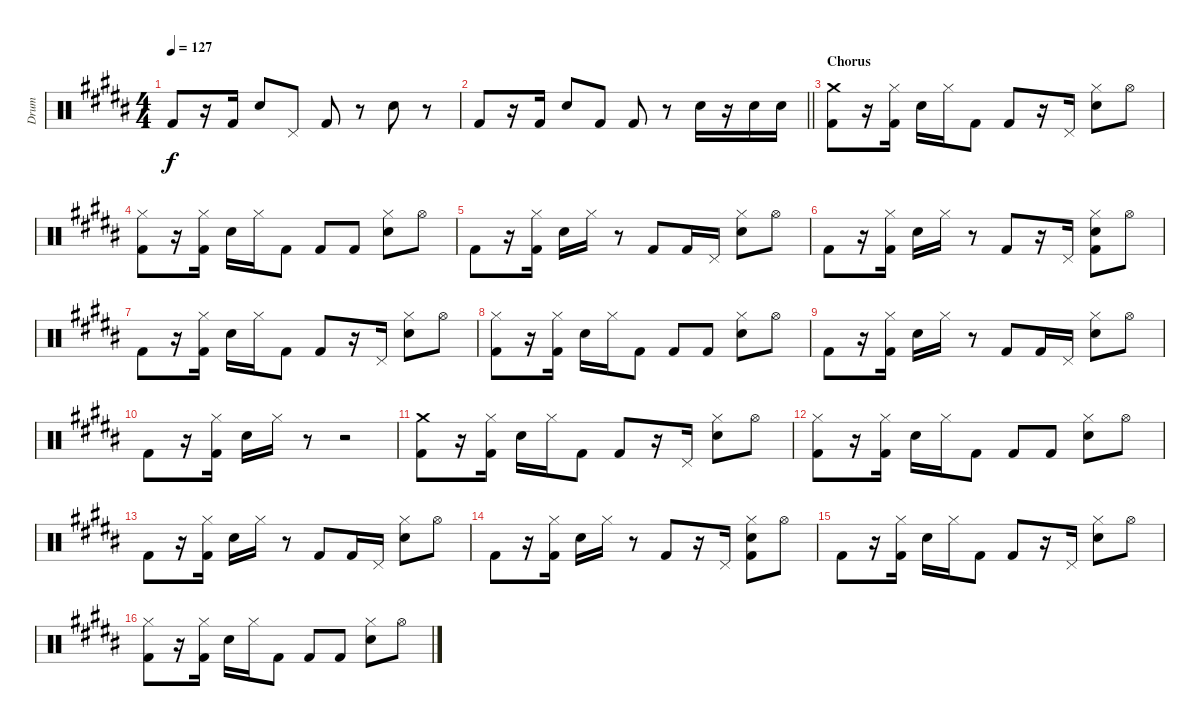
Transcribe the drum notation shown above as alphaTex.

\track ("Drum" "Drum") {instrument percussion}
\staff {score}
\articulation defaults
\ts (4 4)
\tempo 127
\clef neutral
\ks g#minor "Kick (hit) 2".8{dy f}
r.16 "Kick (hit) 2".16 "Snare (hit) 2".8 "Pedal Hi-Hat (hit)".8 "Kick (hit) 2".8 r.8 "Snare (hit) 2".8 r.8 |
\barLineRight lightlight "Kick (hit) 2".8
r.16 "Kick (hit) 2".16 "Snare (hit) 2".8 "Kick (hit) 2".8 "Kick (hit) 2".8 r.8 "Snare (hit) 2".16 r.16 "Snare (hit) 2".16 "Snare (hit) 2".16 |
\section ("" "Chorus")
("Crash medium (hit)" "Kick (hit) 2").8 r.16 ("Hi-Hat (closed)" "Kick (hit) 2").16 "Snare (hit) 2".16 "Hi-Hat (closed)".16 "Kick (hit) 2".8 "Kick (hit) 2".8 r.16 "Pedal Hi-Hat (hit)".16 ("Hi-Hat (closed)" "Snare (hit) 2").8 "Hi-Hat (open)".8 |
("Hi-Hat (closed)" "Kick (hit) 2").8 r.16 ("Hi-Hat (closed)" "Kick (hit) 2").16 "Snare (hit) 2".16 "Hi-Hat (closed)".16 "Kick (hit) 2".8 "Kick (hit) 2".8 "Kick (hit) 2".8 ("Hi-Hat (closed)" "Snare (hit) 2").8 "Hi-Hat (open)".8 |
"Kick (hit) 2".8 r.16 ("Hi-Hat (closed)" "Kick (hit) 2").16 "Snare (hit) 2".16 "Hi-Hat (closed)".16 r.8 "Kick (hit) 2".8 "Kick (hit) 2".16 "Pedal Hi-Hat (hit)".16 ("Hi-Hat (closed)" "Snare (hit) 2").8 "Hi-Hat (open)".8 |
"Kick (hit) 2".8 r.16 ("Hi-Hat (closed)" "Kick (hit) 2").16 "Snare (hit) 2".16 "Hi-Hat (closed)".16 r.8 "Kick (hit) 2".8 r.16 "Pedal Hi-Hat (hit)".16 ("Hi-Hat (closed)" "Snare (hit) 2" "Kick (hit) 2").8 "Hi-Hat (open)".8 |
"Kick (hit) 2".8 r.16 ("Hi-Hat (closed)" "Kick (hit) 2").16 "Snare (hit) 2".16 "Hi-Hat (closed)".16 "Kick (hit) 2".8 "Kick (hit) 2".8 r.16 "Pedal Hi-Hat (hit)".16 ("Hi-Hat (closed)" "Snare (hit) 2").8 "Hi-Hat (open)".8 |
("Hi-Hat (closed)" "Kick (hit) 2").8 r.16 ("Hi-Hat (closed)" "Kick (hit) 2").16 "Snare (hit) 2".16 "Hi-Hat (closed)".16 "Kick (hit) 2".8 "Kick (hit) 2".8 "Kick (hit) 2".8 ("Hi-Hat (closed)" "Snare (hit) 2").8 "Hi-Hat (open)".8 |
"Kick (hit) 2".8 r.16 ("Hi-Hat (closed)" "Kick (hit) 2").16 "Snare (hit) 2".16 "Hi-Hat (closed)".16 r.8 "Kick (hit) 2".8 "Kick (hit) 2".16 "Pedal Hi-Hat (hit)".16 ("Hi-Hat (closed)" "Snare (hit) 2").8 "Hi-Hat (open)".8 |
"Kick (hit) 2".8 r.16 ("Hi-Hat (closed)" "Kick (hit) 2").16 "Snare (hit) 2".16 "Hi-Hat (closed)".16 r.8 r.2 |
("Crash medium (hit)" "Kick (hit) 2").8 r.16 ("Hi-Hat (closed)" "Kick (hit) 2").16 "Snare (hit) 2".16 "Hi-Hat (closed)".16 "Kick (hit) 2".8 "Kick (hit) 2".8 r.16 "Pedal Hi-Hat (hit)".16 ("Hi-Hat (closed)" "Snare (hit) 2").8 "Hi-Hat (open)".8 |
("Hi-Hat (closed)" "Kick (hit) 2").8 r.16 ("Hi-Hat (closed)" "Kick (hit) 2").16 "Snare (hit) 2".16 "Hi-Hat (closed)".16 "Kick (hit) 2".8 "Kick (hit) 2".8 "Kick (hit) 2".8 ("Hi-Hat (closed)" "Snare (hit) 2").8 "Hi-Hat (open)".8 |
"Kick (hit) 2".8 r.16 ("Hi-Hat (closed)" "Kick (hit) 2").16 "Snare (hit) 2".16 "Hi-Hat (closed)".16 r.8 "Kick (hit) 2".8 "Kick (hit) 2".16 "Pedal Hi-Hat (hit)".16 ("Hi-Hat (closed)" "Snare (hit) 2").8 "Hi-Hat (open)".8 |
"Kick (hit) 2".8 r.16 ("Hi-Hat (closed)" "Kick (hit) 2").16 "Snare (hit) 2".16 "Hi-Hat (closed)".16 r.8 "Kick (hit) 2".8 r.16 "Pedal Hi-Hat (hit)".16 ("Hi-Hat (closed)" "Snare (hit) 2" "Kick (hit) 2").8 "Hi-Hat (open)".8 |
"Kick (hit) 2".8 r.16 ("Hi-Hat (closed)" "Kick (hit) 2").16 "Snare (hit) 2".16 "Hi-Hat (closed)".16 "Kick (hit) 2".8 "Kick (hit) 2".8 r.16 "Pedal Hi-Hat (hit)".16 ("Hi-Hat (closed)" "Snare (hit) 2").8 "Hi-Hat (open)".8 |
("Hi-Hat (closed)" "Kick (hit) 2").8 r.16 ("Hi-Hat (closed)" "Kick (hit) 2").16 "Snare (hit) 2".16 "Hi-Hat (closed)".16 "Kick (hit) 2".8 "Kick (hit) 2".8 "Kick (hit) 2".8 ("Hi-Hat (closed)" "Snare (hit) 2").8 "Hi-Hat (open)".8
